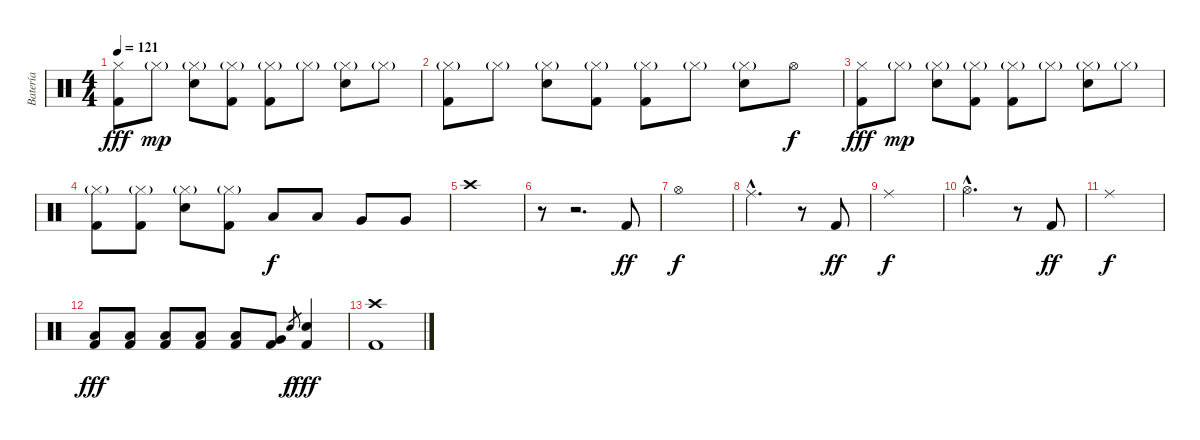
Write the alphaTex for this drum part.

\track ("Batería" "Batería") {instrument percussion}
\staff {score}
\articulation defaults
\ts (4 4)
\tempo 121
\clef neutral
\ks c
("Kick (hit) 2" "Hi-Hat (closed)").8{dy fff} "Hi-Hat (closed)"{g}.8{dy mp} ("Snare (hit) 2" "Hi-Hat (closed)"{g}).8 ("Kick (hit) 2" "Hi-Hat (closed)"{g}).8 ("Kick (hit) 2" "Hi-Hat (closed)"{g}).8 "Hi-Hat (closed)"{g}.8 ("Snare (hit) 2" "Hi-Hat (closed)"{g}).8 "Hi-Hat (closed)"{g}.8 |
("Kick (hit) 2" "Hi-Hat (closed)"{g}).8 "Hi-Hat (closed)"{g}.8 ("Snare (hit) 2" "Hi-Hat (closed)"{g}).8 ("Kick (hit) 2" "Hi-Hat (closed)"{g}).8 ("Kick (hit) 2" "Hi-Hat (closed)"{g}).8 "Hi-Hat (closed)"{g}.8 ("Snare (hit) 2" "Hi-Hat (closed)"{g}).8 "Hi-Hat (open)".8{dy f} |
("Kick (hit) 2" "Hi-Hat (closed)").8{dy fff} "Hi-Hat (closed)"{g}.8{dy mp} ("Snare (hit) 2" "Hi-Hat (closed)"{g}).8 ("Kick (hit) 2" "Hi-Hat (closed)"{g}).8 ("Kick (hit) 2" "Hi-Hat (closed)"{g}).8 "Hi-Hat (closed)"{g}.8 ("Snare (hit) 2" "Hi-Hat (closed)"{g}).8 "Hi-Hat (closed)"{g}.8 |
("Kick (hit) 2" "Hi-Hat (closed)"{g}).8 ("Kick (hit) 2" "Hi-Hat (closed)"{g}).8 ("Snare (hit) 2" "Hi-Hat (closed)"{g}).8 ("Kick (hit) 2" "Hi-Hat (closed)"{g}).8 "Low Tom (hit)".8{dy f} "Low Tom (hit)".8 "Very Low Tom (hit)".8 "Very Low Tom (hit)".8 |
"Crash high (hit)".1 |
r.8 r.2{d} "Kick (hit) 2".8{dy ff} |
"Hi-Hat (open)".1{dy f} |
"Ride (middle)"{hac}.2{d} r.8 "Kick (hit) 2".8{dy ff} |
"Ride (middle)".1{dy f} |
"Hi-Hat (open)"{hac}.2{d} r.8 "Kick (hit) 2".8{dy ff} |
"Ride (middle)".1{dy f} |
("Kick (hit) 2" "Low Floor Tom (hit)").8{dy fff} ("Kick (hit) 2" "Low Floor Tom (hit)").8 ("Kick (hit) 2" "Low Floor Tom (hit)").8 ("Kick (hit) 2" "Low Floor Tom (hit)").8 ("Kick (hit) 2" "Low Tom (hit)").8 ("Kick (hit) 2" "Very Low Tom (hit)").8 "Snare (hit) 2".8{gr dy f} ("Kick (hit) 2" "Snare (hit) 2").4{dy fff} |
("Kick (hit) 2" "Crash high (hit)").1
